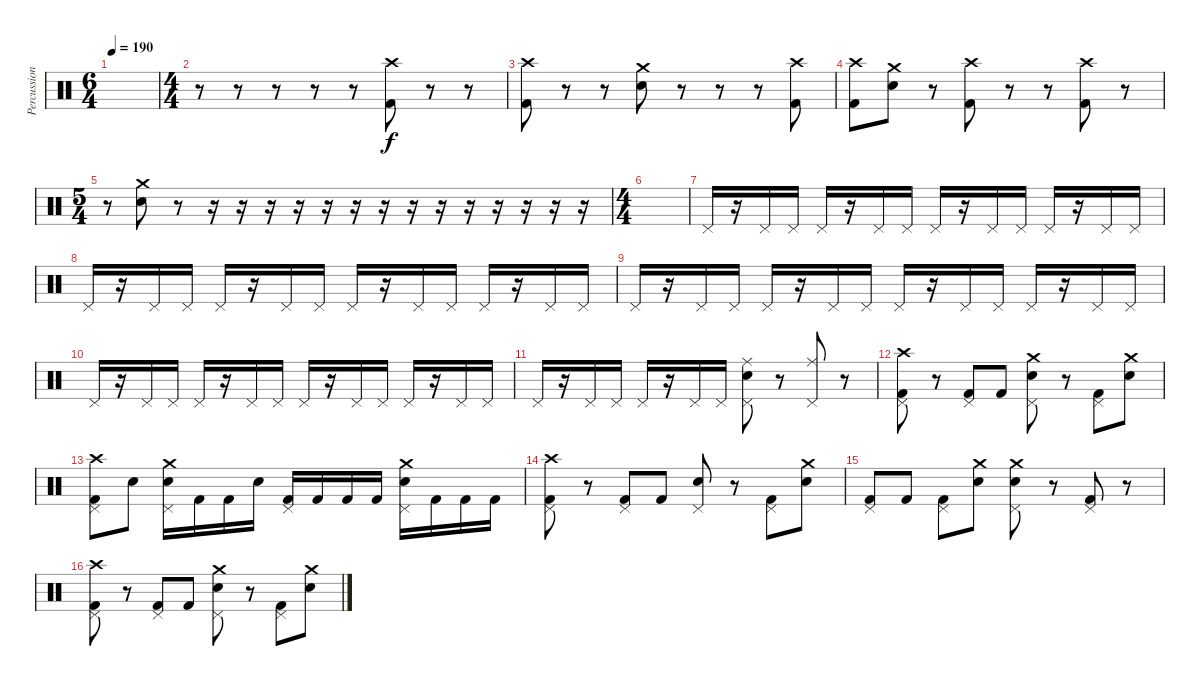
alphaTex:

\track ("Percussion" "Percussion") {instrument percussion}
\staff {score}
\articulation defaults
\ts (6 4)
\tempo 190
\clef neutral
\ks c
|
\ts (4 4)
r.8 r.8 r.8 r.8 r.8 ("Crash high (hit)" "Kick (hit) 2").8 r.8 r.8 |
("Crash high (hit)" "Kick (hit) 2").8 r.8 r.8 ("Crash medium (hit)" "Snare (hit) 2").8 r.8 r.8 r.8 ("Crash high (hit)" "Kick (hit) 2").8 |
("Crash high (hit)" "Kick (hit) 2").8 ("Crash medium (hit)" "Snare (hit) 2").8 r.8 ("Crash high (hit)" "Kick (hit) 2").8 r.8 r.8 ("Crash high (hit)" "Kick (hit) 2").8 r.8 |
\ts (5 4)
r.8 ("Crash medium (hit)" "Snare (hit) 2").8 r.8 r.16 r.16 r.16 r.16 r.16 r.16 r.16 r.16 r.16 r.16 r.16 r.16 r.16 r.16 |
\ts (4 4)
|
"Pedal Hi-Hat (hit)".16 r.16 "Pedal Hi-Hat (hit)".16 "Pedal Hi-Hat (hit)".16 "Pedal Hi-Hat (hit)".16 r.16 "Pedal Hi-Hat (hit)".16 "Pedal Hi-Hat (hit)".16 "Pedal Hi-Hat (hit)".16 r.16 "Pedal Hi-Hat (hit)".16 "Pedal Hi-Hat (hit)".16 "Pedal Hi-Hat (hit)".16 r.16 "Pedal Hi-Hat (hit)".16 "Pedal Hi-Hat (hit)".16 |
"Pedal Hi-Hat (hit)".16 r.16 "Pedal Hi-Hat (hit)".16 "Pedal Hi-Hat (hit)".16 "Pedal Hi-Hat (hit)".16 r.16 "Pedal Hi-Hat (hit)".16 "Pedal Hi-Hat (hit)".16 "Pedal Hi-Hat (hit)".16 r.16 "Pedal Hi-Hat (hit)".16 "Pedal Hi-Hat (hit)".16 "Pedal Hi-Hat (hit)".16 r.16 "Pedal Hi-Hat (hit)".16 "Pedal Hi-Hat (hit)".16 |
"Pedal Hi-Hat (hit)".16 r.16 "Pedal Hi-Hat (hit)".16 "Pedal Hi-Hat (hit)".16 "Pedal Hi-Hat (hit)".16 r.16 "Pedal Hi-Hat (hit)".16 "Pedal Hi-Hat (hit)".16 "Pedal Hi-Hat (hit)".16 r.16 "Pedal Hi-Hat (hit)".16 "Pedal Hi-Hat (hit)".16 "Pedal Hi-Hat (hit)".16 r.16 "Pedal Hi-Hat (hit)".16 "Pedal Hi-Hat (hit)".16 |
"Pedal Hi-Hat (hit)".16 r.16 "Pedal Hi-Hat (hit)".16 "Pedal Hi-Hat (hit)".16 "Pedal Hi-Hat (hit)".16 r.16 "Pedal Hi-Hat (hit)".16 "Pedal Hi-Hat (hit)".16 "Pedal Hi-Hat (hit)".16 r.16 "Pedal Hi-Hat (hit)".16 "Pedal Hi-Hat (hit)".16 "Pedal Hi-Hat (hit)".16 r.16 "Pedal Hi-Hat (hit)".16 "Pedal Hi-Hat (hit)".16 |
"Pedal Hi-Hat (hit)".16 r.16 "Pedal Hi-Hat (hit)".16 "Pedal Hi-Hat (hit)".16 "Pedal Hi-Hat (hit)".16 r.16 "Pedal Hi-Hat (hit)".16 "Pedal Hi-Hat (hit)".16 ("Ride (middle)" "Pedal Hi-Hat (hit)" "Snare (hit) 2").8 r.8 ("Ride (middle)" "Pedal Hi-Hat (hit)").8 r.8 |
("Crash high (hit)" "Pedal Hi-Hat (hit)" "Kick (hit) 2").8 r.8 ("Pedal Hi-Hat (hit)" "Kick (hit) 2").8 "Kick (hit) 2".8 ("Crash medium (hit)" "Pedal Hi-Hat (hit)" "Snare (hit) 2").8 r.8 ("Pedal Hi-Hat (hit)" "Kick (hit) 2").8 ("Crash medium (hit)" "Snare (hit) 2").8 |
("Crash high (hit)" "Pedal Hi-Hat (hit)" "Kick (hit) 2").8 "Snare (hit) 2".8 ("Crash medium (hit)" "Pedal Hi-Hat (hit)" "Snare (hit) 2").16 "Kick (hit) 2".16 "Kick (hit) 2".16 "Snare (hit) 2".16 ("Pedal Hi-Hat (hit)" "Kick (hit) 2").16 "Kick (hit) 2".16 "Kick (hit) 2".16 "Kick (hit) 2".16 ("Crash medium (hit)" "Pedal Hi-Hat (hit)" "Snare (hit) 2").16 "Kick (hit) 2".16 "Kick (hit) 2".16 "Kick (hit) 2".16 |
("Crash high (hit)" "Pedal Hi-Hat (hit)" "Kick (hit) 2").8 r.8 ("Pedal Hi-Hat (hit)" "Kick (hit) 2").8 "Kick (hit) 2".8 ("Pedal Hi-Hat (hit)" "Snare (hit) 2").8 r.8 ("Pedal Hi-Hat (hit)" "Kick (hit) 2").8 ("Crash medium (hit)" "Snare (hit) 2").8 |
("Pedal Hi-Hat (hit)" "Kick (hit) 2").8 "Kick (hit) 2".8 ("Pedal Hi-Hat (hit)" "Kick (hit) 2").8 ("Crash medium (hit)" "Snare (hit) 2").8 ("Crash medium (hit)" "Pedal Hi-Hat (hit)" "Snare (hit) 2").8 r.8 ("Pedal Hi-Hat (hit)" "Kick (hit) 2").8 r.8 |
("Crash high (hit)" "Pedal Hi-Hat (hit)" "Kick (hit) 2").8 r.8 ("Pedal Hi-Hat (hit)" "Kick (hit) 2").8 "Kick (hit) 2".8 ("Crash medium (hit)" "Pedal Hi-Hat (hit)" "Snare (hit) 2").8 r.8 ("Pedal Hi-Hat (hit)" "Kick (hit) 2").8 ("Crash medium (hit)" "Snare (hit) 2").8
